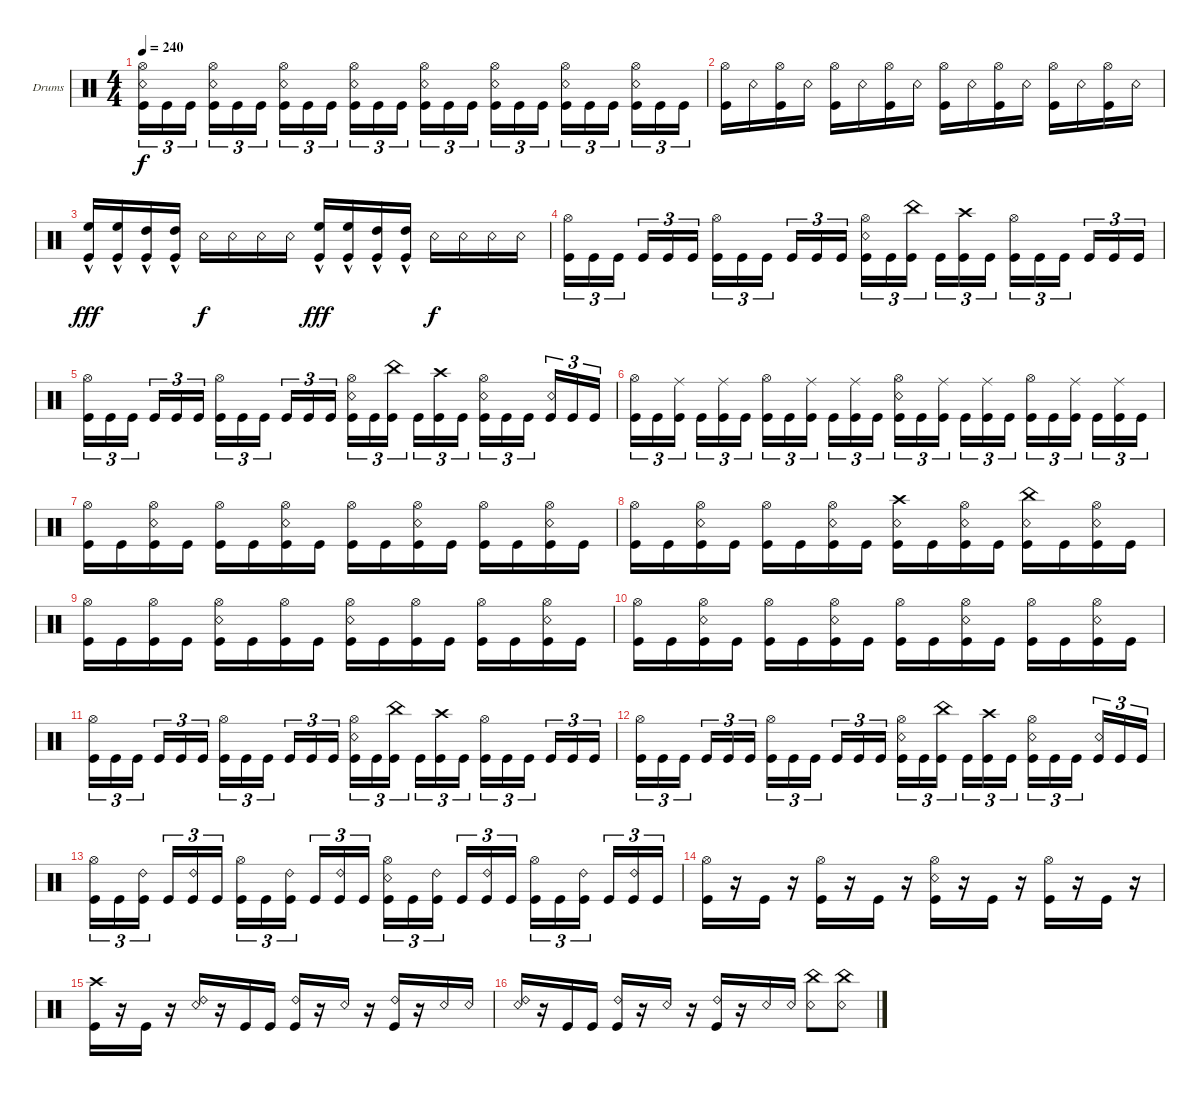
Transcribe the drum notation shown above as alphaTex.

\bracketExtendMode groupsimilarinstruments
\firstSystemTrackNameOrientation horizontal
\otherSystemsTrackNameOrientation horizontal
\track ("Drumkit" "Drums") {instrument percussion}
\staff {score}
\articulation defaults
\ts (4 4)
\tempo 240
\clef neutral
\ks c
("Kick (hit)" "Snare (rim shot)" "Hi-Hat (open)").16{tu (3 2) dy f} "Kick (hit)".16{tu (3 2)} "Kick (hit)".16{tu (3 2)} ("Kick (hit)" "Snare (rim shot)" "Hi-Hat (open)").16{tu (3 2)} "Kick (hit)".16{tu (3 2)} "Kick (hit)".16{tu (3 2)} ("Kick (hit)" "Snare (rim shot)" "Hi-Hat (open)").16{tu (3 2)} "Kick (hit)".16{tu (3 2)} "Kick (hit)".16{tu (3 2)} ("Kick (hit)" "Snare (rim shot)" "Hi-Hat (open)").16{tu (3 2)} "Kick (hit)".16{tu (3 2)} "Kick (hit)".16{tu (3 2)} ("Kick (hit)" "Snare (rim shot)" "Hi-Hat (open)").16{tu (3 2)} "Kick (hit)".16{tu (3 2)} "Kick (hit)".16{tu (3 2)} ("Kick (hit)" "Snare (rim shot)" "Hi-Hat (open)").16{tu (3 2)} "Kick (hit)".16{tu (3 2)} "Kick (hit)".16{tu (3 2)} ("Kick (hit)" "Snare (rim shot)" "Hi-Hat (open)").16{tu (3 2)} "Kick (hit)".16{tu (3 2)} "Kick (hit)".16{tu (3 2)} ("Kick (hit)" "Snare (rim shot)" "Hi-Hat (open)").16{tu (3 2)} "Kick (hit)".16{tu (3 2)} "Kick (hit)".16{tu (3 2)} |
("Kick (hit)" "Hi-Hat (open)").16 "Snare (rim shot)".16 ("Kick (hit)" "Hi-Hat (open)").16 "Snare (rim shot)".16 ("Kick (hit)" "Hi-Hat (open)").16 "Snare (rim shot)".16 ("Kick (hit)" "Hi-Hat (open)").16 "Snare (rim shot)".16 ("Kick (hit)" "Hi-Hat (open)").16 "Snare (rim shot)".16 ("Kick (hit)" "Hi-Hat (open)").16 "Snare (rim shot)".16 ("Kick (hit)" "Hi-Hat (open)").16 "Snare (rim shot)".16 ("Kick (hit)" "Hi-Hat (open)").16 "Snare (rim shot)".16 |
("High Floor Tom (hit)"{hac} "Kick (hit)").16{dy fff} ("High Floor Tom (hit)"{hac} "Kick (hit)").16 ("High Tom (hit)"{hac} "Kick (hit)").16 ("High Tom (hit)"{hac} "Kick (hit)").16 "Snare (rim shot)".16{dy f} "Snare (rim shot)".16 "Snare (rim shot)".16 "Snare (rim shot)".16 ("High Floor Tom (hit)"{hac} "Kick (hit)").16{dy fff} ("High Floor Tom (hit)"{hac} "Kick (hit)").16 ("High Tom (hit)"{hac} "Kick (hit)").16 ("High Tom (hit)"{hac} "Kick (hit)").16 "Snare (rim shot)".16{dy f} "Snare (rim shot)".16 "Snare (rim shot)".16 "Snare (rim shot)".16 |
("Kick (hit)" "Hi-Hat (open)").16{tu (3 2)} "Kick (hit)".16{tu (3 2)} "Kick (hit)".16{tu (3 2)} "Kick (hit)".16{tu (3 2)} "Kick (hit)".16{tu (3 2)} "Kick (hit)".16{tu (3 2)} ("Kick (hit)" "Hi-Hat (open)").16{tu (3 2)} "Kick (hit)".16{tu (3 2)} "Kick (hit)".16{tu (3 2)} "Kick (hit)".16{tu (3 2)} "Kick (hit)".16{tu (3 2)} "Kick (hit)".16{tu (3 2)} ("Kick (hit)" "Snare (rim shot)" "Hi-Hat (open)").16{tu (3 2)} "Kick (hit)".16{tu (3 2)} ("Kick (hit)" "China (hit)").16{tu (3 2)} "Kick (hit)".16{tu (3 2)} ("Kick (hit)" "Crash high (hit)").16{tu (3 2)} "Kick (hit)".16{tu (3 2)} ("Kick (hit)" "Hi-Hat (open)").16{tu (3 2)} "Kick (hit)".16{tu (3 2)} "Kick (hit)".16{tu (3 2)} "Kick (hit)".16{tu (3 2)} "Kick (hit)".16{tu (3 2)} "Kick (hit)".16{tu (3 2)} |
("Kick (hit)" "Hi-Hat (open)").16{tu (3 2)} "Kick (hit)".16{tu (3 2)} "Kick (hit)".16{tu (3 2)} "Kick (hit)".16{tu (3 2)} "Kick (hit)".16{tu (3 2)} "Kick (hit)".16{tu (3 2)} ("Kick (hit)" "Hi-Hat (open)").16{tu (3 2)} "Kick (hit)".16{tu (3 2)} "Kick (hit)".16{tu (3 2)} "Kick (hit)".16{tu (3 2)} "Kick (hit)".16{tu (3 2)} "Kick (hit)".16{tu (3 2)} ("Kick (hit)" "Snare (rim shot)" "Hi-Hat (open)").16{tu (3 2)} "Kick (hit)".16{tu (3 2)} ("Kick (hit)" "China (hit)").16{tu (3 2)} "Kick (hit)".16{tu (3 2)} ("Kick (hit)" "Crash high (hit)").16{tu (3 2)} "Kick (hit)".16{tu (3 2)} ("Kick (hit)" "Hi-Hat (open)" "Snare (rim shot)").16{tu (3 2)} "Kick (hit)".16{tu (3 2)} "Kick (hit)".16{tu (3 2)} ("Kick (hit)" "Snare (rim shot)").16{tu (3 2)} "Kick (hit)".16{tu (3 2)} "Kick (hit)".16{tu (3 2)} |
("Kick (hit)" "Hi-Hat (open)").16{tu (3 2)} "Kick (hit)".16{tu (3 2)} ("Kick (hit)" "Ride (middle)").16{tu (3 2)} "Kick (hit)".16{tu (3 2)} ("Kick (hit)" "Ride (middle)").16{tu (3 2)} "Kick (hit)".16{tu (3 2)} ("Kick (hit)" "Hi-Hat (open)").16{tu (3 2)} "Kick (hit)".16{tu (3 2)} ("Kick (hit)" "Ride (middle)").16{tu (3 2)} "Kick (hit)".16{tu (3 2)} ("Kick (hit)" "Ride (middle)").16{tu (3 2)} "Kick (hit)".16{tu (3 2)} ("Kick (hit)" "Snare (rim shot)" "Hi-Hat (open)").16{tu (3 2)} "Kick (hit)".16{tu (3 2)} ("Kick (hit)" "Ride (middle)").16{tu (3 2)} "Kick (hit)".16{tu (3 2)} ("Kick (hit)" "Ride (middle)").16{tu (3 2)} "Kick (hit)".16{tu (3 2)} ("Kick (hit)" "Hi-Hat (open)").16{tu (3 2)} "Kick (hit)".16{tu (3 2)} ("Kick (hit)" "Ride (middle)").16{tu (3 2)} "Kick (hit)".16{tu (3 2)} ("Kick (hit)" "Ride (middle)").16{tu (3 2)} "Kick (hit)".16{tu (3 2)} |
("Kick (hit)" "Hi-Hat (open)").16 "Kick (hit)".16 ("Kick (hit)" "Hi-Hat (open)" "Snare (rim shot)").16 "Kick (hit)".16 ("Kick (hit)" "Hi-Hat (open)").16 "Kick (hit)".16 ("Kick (hit)" "Hi-Hat (open)" "Snare (rim shot)").16 "Kick (hit)".16 ("Kick (hit)" "Hi-Hat (open)").16 "Kick (hit)".16 ("Kick (hit)" "Hi-Hat (open)" "Snare (rim shot)").16 "Kick (hit)".16 ("Kick (hit)" "Hi-Hat (open)").16 "Kick (hit)".16 ("Kick (hit)" "Hi-Hat (open)" "Snare (rim shot)").16 "Kick (hit)".16 |
("Kick (hit)" "Hi-Hat (open)").16 "Kick (hit)".16 ("Kick (hit)" "Hi-Hat (open)" "Snare (rim shot)").16 "Kick (hit)".16 ("Kick (hit)" "Hi-Hat (open)").16 "Kick (hit)".16 ("Kick (hit)" "Hi-Hat (open)" "Snare (rim shot)").16 "Kick (hit)".16 ("Kick (hit)" "Snare (rim shot)" "Crash high (hit)").16 "Kick (hit)".16 ("Kick (hit)" "Hi-Hat (open)" "Snare (rim shot)").16 "Kick (hit)".16 ("Kick (hit)" "Snare (rim shot)" "China (hit)").16 "Kick (hit)".16 ("Kick (hit)" "Hi-Hat (open)" "Snare (rim shot)").16 "Kick (hit)".16 |
("Kick (hit)" "Hi-Hat (open)").16 "Kick (hit)".16 ("Kick (hit)" "Hi-Hat (open)").16 "Kick (hit)".16 ("Kick (hit)" "Hi-Hat (open)" "Snare (rim shot)").16 "Kick (hit)".16 ("Kick (hit)" "Hi-Hat (open)").16 "Kick (hit)".16 ("Kick (hit)" "Hi-Hat (open)" "Snare (rim shot)").16 "Kick (hit)".16 ("Kick (hit)" "Hi-Hat (open)").16 "Kick (hit)".16 ("Kick (hit)" "Hi-Hat (open)").16 "Kick (hit)".16 ("Kick (hit)" "Hi-Hat (open)" "Snare (rim shot)").16 "Kick (hit)".16 |
("Kick (hit)" "Hi-Hat (open)").16 "Kick (hit)".16 ("Kick (hit)" "Hi-Hat (open)" "Snare (rim shot)").16 "Kick (hit)".16 ("Kick (hit)" "Hi-Hat (open)").16 "Kick (hit)".16 ("Kick (hit)" "Hi-Hat (open)" "Snare (rim shot)").16 "Kick (hit)".16 ("Kick (hit)" "Hi-Hat (open)").16 "Kick (hit)".16 ("Kick (hit)" "Hi-Hat (open)" "Snare (rim shot)").16 "Kick (hit)".16 ("Kick (hit)" "Hi-Hat (open)").16 "Kick (hit)".16 ("Kick (hit)" "Hi-Hat (open)" "Snare (rim shot)").16 "Kick (hit)".16 |
("Kick (hit)" "Hi-Hat (open)").16{tu (3 2)} "Kick (hit)".16{tu (3 2)} "Kick (hit)".16{tu (3 2)} "Kick (hit)".16{tu (3 2)} "Kick (hit)".16{tu (3 2)} "Kick (hit)".16{tu (3 2)} ("Kick (hit)" "Hi-Hat (open)").16{tu (3 2)} "Kick (hit)".16{tu (3 2)} "Kick (hit)".16{tu (3 2)} "Kick (hit)".16{tu (3 2)} "Kick (hit)".16{tu (3 2)} "Kick (hit)".16{tu (3 2)} ("Kick (hit)" "Snare (rim shot)" "Hi-Hat (open)").16{tu (3 2)} "Kick (hit)".16{tu (3 2)} ("Kick (hit)" "China (hit)").16{tu (3 2)} "Kick (hit)".16{tu (3 2)} ("Kick (hit)" "Crash high (hit)").16{tu (3 2)} "Kick (hit)".16{tu (3 2)} ("Kick (hit)" "Hi-Hat (open)").16{tu (3 2)} "Kick (hit)".16{tu (3 2)} "Kick (hit)".16{tu (3 2)} "Kick (hit)".16{tu (3 2)} "Kick (hit)".16{tu (3 2)} "Kick (hit)".16{tu (3 2)} |
("Kick (hit)" "Hi-Hat (open)").16{tu (3 2)} "Kick (hit)".16{tu (3 2)} "Kick (hit)".16{tu (3 2)} "Kick (hit)".16{tu (3 2)} "Kick (hit)".16{tu (3 2)} "Kick (hit)".16{tu (3 2)} ("Kick (hit)" "Hi-Hat (open)").16{tu (3 2)} "Kick (hit)".16{tu (3 2)} "Kick (hit)".16{tu (3 2)} "Kick (hit)".16{tu (3 2)} "Kick (hit)".16{tu (3 2)} "Kick (hit)".16{tu (3 2)} ("Kick (hit)" "Snare (rim shot)" "Hi-Hat (open)").16{tu (3 2)} "Kick (hit)".16{tu (3 2)} ("Kick (hit)" "China (hit)").16{tu (3 2)} "Kick (hit)".16{tu (3 2)} ("Kick (hit)" "Crash high (hit)").16{tu (3 2)} "Kick (hit)".16{tu (3 2)} ("Kick (hit)" "Hi-Hat (open)" "Snare (rim shot)").16{tu (3 2)} "Kick (hit)".16{tu (3 2)} "Kick (hit)".16{tu (3 2)} ("Kick (hit)" "Snare (rim shot)").16{tu (3 2)} "Kick (hit)".16{tu (3 2)} "Kick (hit)".16{tu (3 2)} |
("Kick (hit)" "Hi-Hat (open)").16{tu (3 2)} "Kick (hit)".16{tu (3 2)} ("Kick (hit)" "Ride (bell) 2").16{tu (3 2)} "Kick (hit)".16{tu (3 2)} ("Kick (hit)" "Ride (bell) 2").16{tu (3 2)} "Kick (hit)".16{tu (3 2)} ("Kick (hit)" "Hi-Hat (open)").16{tu (3 2)} "Kick (hit)".16{tu (3 2)} ("Kick (hit)" "Ride (bell) 2").16{tu (3 2)} "Kick (hit)".16{tu (3 2)} ("Kick (hit)" "Ride (bell) 2").16{tu (3 2)} "Kick (hit)".16{tu (3 2)} ("Kick (hit)" "Snare (rim shot)" "Hi-Hat (open)").16{tu (3 2)} "Kick (hit)".16{tu (3 2)} ("Kick (hit)" "Ride (bell) 2").16{tu (3 2)} "Kick (hit)".16{tu (3 2)} ("Kick (hit)" "Ride (bell) 2").16{tu (3 2)} "Kick (hit)".16{tu (3 2)} ("Kick (hit)" "Hi-Hat (open)").16{tu (3 2)} "Kick (hit)".16{tu (3 2)} ("Kick (hit)" "Ride (bell) 2").16{tu (3 2)} "Kick (hit)".16{tu (3 2)} ("Kick (hit)" "Ride (bell) 2").16{tu (3 2)} "Kick (hit)".16{tu (3 2)} |
("Kick (hit)" "Hi-Hat (open)").16 r.16 "Kick (hit)".16 r.16 ("Kick (hit)" "Hi-Hat (open)").16 r.16 "Kick (hit)".16 r.16 ("Kick (hit)" "Hi-Hat (open)" "Snare (rim shot)").16 r.16 "Kick (hit)".16 r.16 ("Kick (hit)" "Hi-Hat (open)").16 r.16 "Kick (hit)".16 r.16 |
("Kick (hit)" "Crash high (hit)").16 r.16 "Kick (hit)".16 r.16 ("Ride (bell) 2" "Snare (rim shot)").16 r.16 "Kick (hit)".16 "Kick (hit)".16 ("Ride (bell) 2" "Kick (hit)").16 r.16 "Snare (rim shot)".16 r.16 ("Ride (bell) 2" "Kick (hit)").16 r.16 "Snare (rim shot)".16 "Snare (rim shot)".16 |
("Ride (bell) 2" "Snare (rim shot)").16 r.16 "Kick (hit)".16 "Kick (hit)".16 ("Ride (bell) 2" "Kick (hit)").16 r.16 "Snare (rim shot)".16 r.16 ("Ride (bell) 2" "Kick (hit)").16 r.16 "Snare (rim shot)".16 "Snare (rim shot)".16 ("Snare (rim shot)" "China (hit)").8 ("Snare (rim shot)" "China (hit)").8
